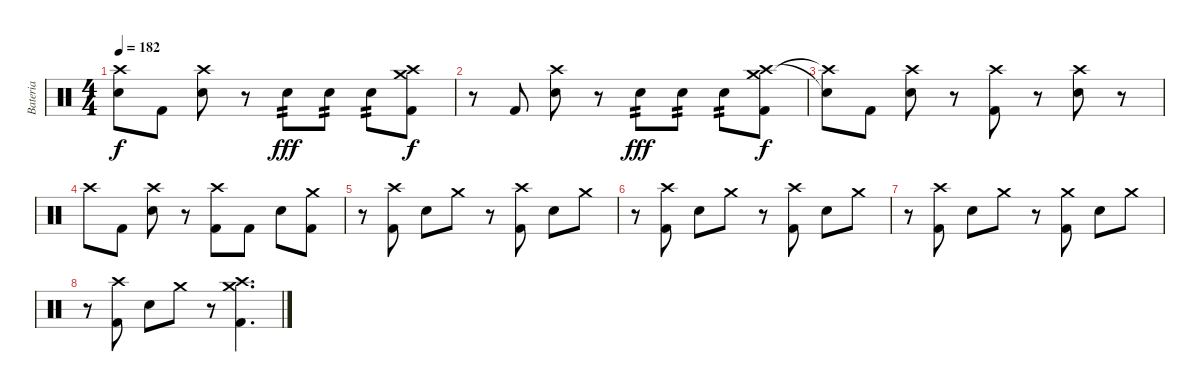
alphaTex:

\track ("Bateria" "Bateria") {instrument percussion}
\staff {score}
\articulation defaults
\ts (4 4)
\tempo 182
\clef neutral
\ks c
("Snare (hit)"{t} "Crash high (hit)"{t}).8{dy f} "Kick (hit) 2".8 ("Crash high (hit)" "Electric Snare (hit)").8 r.8 "Electric Snare (hit)".8{tp 2 dy fff} "Electric Snare (hit)".8{tp 2} "Electric Snare (hit)".8{tp 2} ("Crash high (hit)" "Crash medium (hit)" "Kick (hit) 2").8{dy f} |
r.8 "Kick (hit) 2".8 ("Crash high (hit)" "Electric Snare (hit)").8 r.8 "Electric Snare (hit)".8{tp 2 dy fff} "Electric Snare (hit)".8{tp 2} "Electric Snare (hit)".8{tp 2} ("Crash high (hit)" "Crash medium (hit)" "Kick (hit) 2").8{dy f} |
("Snare (hit)"{t} "Crash high (hit)"{t}).8 "Kick (hit) 2".8 ("Crash high (hit)" "Electric Snare (hit)").8 r.8 ("Crash high (hit)" "Kick (hit) 2").8 r.8 ("Crash high (hit)" "Electric Snare (hit)").8 r.8 |
"Crash high (hit)".8 "Kick (hit) 2".8 ("Crash high (hit)" "Electric Snare (hit)").8 r.8 ("Crash high (hit)" "Kick (hit) 2").8 "Kick (hit) 2".8 "Electric Snare (hit)".8 ("Crash medium (hit)" "Kick (hit) 2").8 |
r.8 ("Crash high (hit)" "Kick (hit) 2").8 "Electric Snare (hit)".8 "Crash medium (hit)".8 r.8 ("Crash high (hit)" "Kick (hit) 2").8 "Electric Snare (hit)".8 "Crash medium (hit)".8 |
r.8 ("Crash high (hit)" "Kick (hit) 2").8 "Electric Snare (hit)".8 "Crash medium (hit)".8 r.8 ("Crash high (hit)" "Kick (hit) 2").8 "Electric Snare (hit)".8 "Crash medium (hit)".8 |
r.8 ("Crash high (hit)" "Kick (hit) 2").8 "Electric Snare (hit)".8 "Crash medium (hit)".8 r.8 ("Crash medium (hit)" "Kick (hit) 2").8 "Electric Snare (hit)".8 "Crash medium (hit)".8 |
r.8 ("Crash high (hit)" "Kick (hit) 2").8 "Electric Snare (hit)".8 "Crash medium (hit)".8 r.8 ("Crash high (hit)" "Crash medium (hit)" "Kick (hit) 2").4{d}
